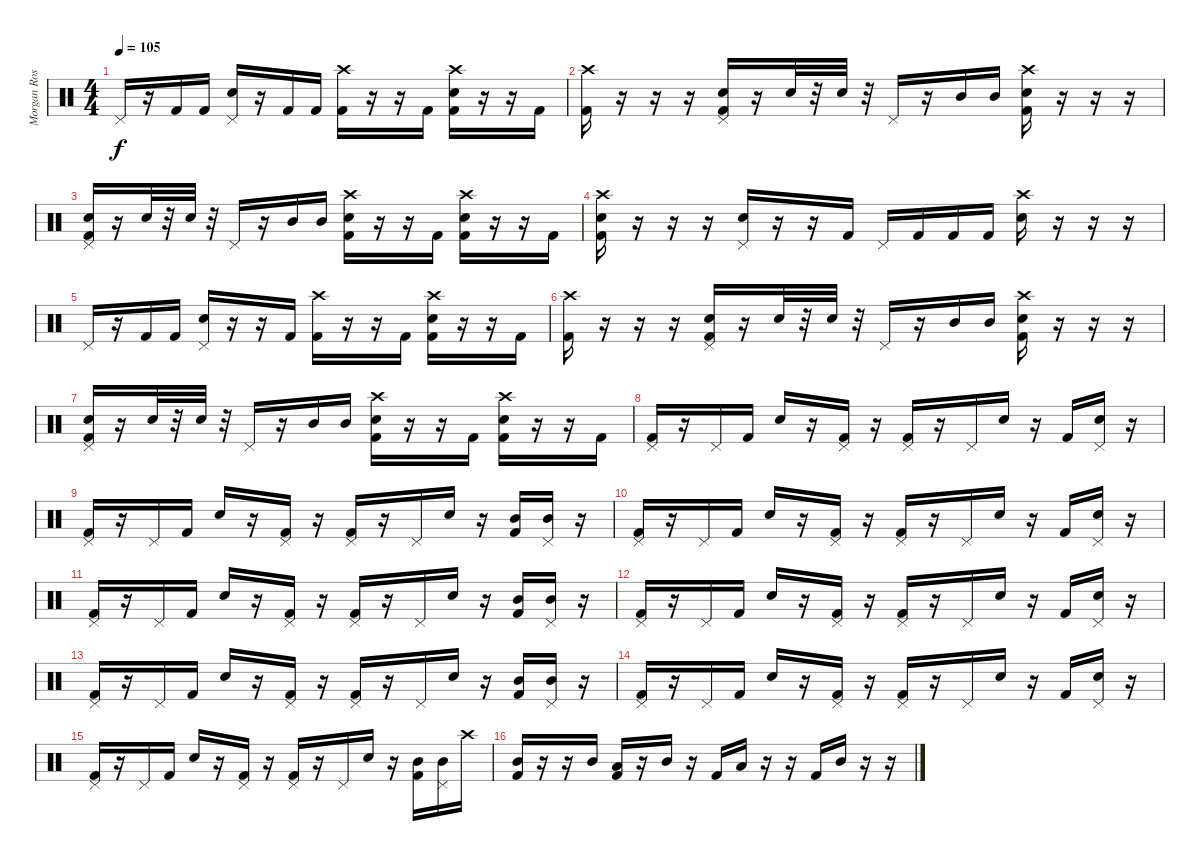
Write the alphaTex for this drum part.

\track ("Morgan Rose - Drums" "Morgan Ros") {instrument percussion}
\staff {score}
\articulation defaults
\ts (4 4)
\tempo 105
\clef neutral
\ks c "Pedal Hi-Hat (hit)".16{dy f}
r.16 "Kick (hit) 2".16 "Kick (hit) 2".16 ("Electric Snare (hit)" "Pedal Hi-Hat (hit)").16 r.16 "Kick (hit) 2".16 "Kick (hit) 2".16 ("Kick (hit) 2" "Crash high (hit)").16 r.16 r.16 "Kick (hit) 2".16 ("Kick (hit) 2" "Electric Snare (hit)" "Crash high (hit)").16 r.16 r.16 "Kick (hit) 2".16 |
("Kick (hit) 2" "Crash high (hit)").16 r.16 r.16 r.16 ("Kick (hit) 2" "Electric Snare (hit)" "Pedal Hi-Hat (hit)").16 r.16 "Electric Snare (hit)".32 r.32 "Electric Snare (hit)".32 r.32 "Pedal Hi-Hat (hit)".16 r.16 "Mid Tom (hit)".16 "Mid Tom (hit)".16 ("Kick (hit) 2" "Electric Snare (hit)" "Crash high (hit)").16 r.16 r.16 r.16 |
("Kick (hit) 2" "Electric Snare (hit)" "Pedal Hi-Hat (hit)").16 r.16 "Electric Snare (hit)".32 r.32 "Electric Snare (hit)".32 r.32 "Pedal Hi-Hat (hit)".16 r.16 "Mid Tom (hit)".16 "Mid Tom (hit)".16 ("Kick (hit) 2" "Electric Snare (hit)" "Crash high (hit)").16 r.16 r.16 "Kick (hit) 2".16 ("Kick (hit) 2" "Electric Snare (hit)" "Crash high (hit)").16 r.16 r.16 "Kick (hit) 2".16 |
("Kick (hit) 2" "Electric Snare (hit)" "Crash high (hit)").16 r.16 r.16 r.16 ("Electric Snare (hit)" "Pedal Hi-Hat (hit)").16 r.16 r.16 "Kick (hit) 2".16 "Pedal Hi-Hat (hit)".16 "Kick (hit) 2".16 "Kick (hit) 2".16 "Kick (hit) 2".16 ("Electric Snare (hit)" "Crash high (hit)").16 r.16 r.16 r.16 |
"Pedal Hi-Hat (hit)".16 r.16 "Kick (hit) 2".16 "Kick (hit) 2".16 ("Electric Snare (hit)" "Pedal Hi-Hat (hit)").16 r.16 r.16 "Kick (hit) 2".16 ("Kick (hit) 2" "Crash high (hit)").16 r.16 r.16 "Kick (hit) 2".16 ("Kick (hit) 2" "Electric Snare (hit)" "Crash high (hit)").16 r.16 r.16 "Kick (hit) 2".16 |
("Kick (hit) 2" "Crash high (hit)").16 r.16 r.16 r.16 ("Kick (hit) 2" "Electric Snare (hit)" "Pedal Hi-Hat (hit)").16 r.16 "Electric Snare (hit)".32 r.32 "Electric Snare (hit)".32 r.32 "Pedal Hi-Hat (hit)".16 r.16 "Mid Tom (hit)".16 "Mid Tom (hit)".16 ("Kick (hit) 2" "Electric Snare (hit)" "Crash high (hit)").16 r.16 r.16 r.16 |
("Kick (hit) 2" "Electric Snare (hit)" "Pedal Hi-Hat (hit)").16 r.16 "Electric Snare (hit)".32 r.32 "Electric Snare (hit)".32 r.32 "Pedal Hi-Hat (hit)".16 r.16 "Mid Tom (hit)".16 "Mid Tom (hit)".16 ("Kick (hit) 2" "Electric Snare (hit)" "Crash high (hit)").16 r.16 r.16 "Kick (hit) 2".16 ("Kick (hit) 2" "Electric Snare (hit)" "Crash high (hit)").16 r.16 r.16 "Kick (hit) 2".16 |
("Kick (hit) 2" "Pedal Hi-Hat (hit)").16 r.16 "Pedal Hi-Hat (hit)".16 "Kick (hit) 2".16 "Electric Snare (hit)".16 r.16 ("Kick (hit) 2" "Pedal Hi-Hat (hit)").16 r.16 ("Kick (hit) 2" "Pedal Hi-Hat (hit)").16 r.16 "Pedal Hi-Hat (hit)".16 "Electric Snare (hit)".16 r.16 "Kick (hit) 2".16 ("Electric Snare (hit)" "Pedal Hi-Hat (hit)").16 r.16 |
("Kick (hit) 2" "Pedal Hi-Hat (hit)").16 r.16 "Pedal Hi-Hat (hit)".16 "Kick (hit) 2".16 "Electric Snare (hit)".16 r.16 ("Kick (hit) 2" "Pedal Hi-Hat (hit)").16 r.16 ("Kick (hit) 2" "Pedal Hi-Hat (hit)").16 r.16 "Pedal Hi-Hat (hit)".16 "Electric Snare (hit)".16 r.16 ("Kick (hit) 2" "Mid Tom (hit)").16 ("Mid Tom (hit)" "Pedal Hi-Hat (hit)").16 r.16 |
("Kick (hit) 2" "Pedal Hi-Hat (hit)").16 r.16 "Pedal Hi-Hat (hit)".16 "Kick (hit) 2".16 "Electric Snare (hit)".16 r.16 ("Kick (hit) 2" "Pedal Hi-Hat (hit)").16 r.16 ("Kick (hit) 2" "Pedal Hi-Hat (hit)").16 r.16 "Pedal Hi-Hat (hit)".16 "Electric Snare (hit)".16 r.16 "Kick (hit) 2".16 ("Electric Snare (hit)" "Pedal Hi-Hat (hit)").16 r.16 |
("Kick (hit) 2" "Pedal Hi-Hat (hit)").16 r.16 "Pedal Hi-Hat (hit)".16 "Kick (hit) 2".16 "Electric Snare (hit)".16 r.16 ("Kick (hit) 2" "Pedal Hi-Hat (hit)").16 r.16 ("Kick (hit) 2" "Pedal Hi-Hat (hit)").16 r.16 "Pedal Hi-Hat (hit)".16 "Electric Snare (hit)".16 r.16 ("Kick (hit) 2" "Mid Tom (hit)").16 ("Mid Tom (hit)" "Pedal Hi-Hat (hit)").16 r.16 |
("Kick (hit) 2" "Pedal Hi-Hat (hit)").16 r.16 "Pedal Hi-Hat (hit)".16 "Kick (hit) 2".16 "Electric Snare (hit)".16 r.16 ("Kick (hit) 2" "Pedal Hi-Hat (hit)").16 r.16 ("Kick (hit) 2" "Pedal Hi-Hat (hit)").16 r.16 "Pedal Hi-Hat (hit)".16 "Electric Snare (hit)".16 r.16 "Kick (hit) 2".16 ("Electric Snare (hit)" "Pedal Hi-Hat (hit)").16 r.16 |
("Kick (hit) 2" "Pedal Hi-Hat (hit)").16 r.16 "Pedal Hi-Hat (hit)".16 "Kick (hit) 2".16 "Electric Snare (hit)".16 r.16 ("Kick (hit) 2" "Pedal Hi-Hat (hit)").16 r.16 ("Kick (hit) 2" "Pedal Hi-Hat (hit)").16 r.16 "Pedal Hi-Hat (hit)".16 "Electric Snare (hit)".16 r.16 ("Kick (hit) 2" "Mid Tom (hit)").16 ("Mid Tom (hit)" "Pedal Hi-Hat (hit)").16 r.16 |
("Kick (hit) 2" "Pedal Hi-Hat (hit)").16 r.16 "Pedal Hi-Hat (hit)".16 "Kick (hit) 2".16 "Electric Snare (hit)".16 r.16 ("Kick (hit) 2" "Pedal Hi-Hat (hit)").16 r.16 ("Kick (hit) 2" "Pedal Hi-Hat (hit)").16 r.16 "Pedal Hi-Hat (hit)".16 "Electric Snare (hit)".16 r.16 "Kick (hit) 2".16 ("Electric Snare (hit)" "Pedal Hi-Hat (hit)").16 r.16 |
("Kick (hit) 2" "Pedal Hi-Hat (hit)").16 r.16 "Pedal Hi-Hat (hit)".16 "Kick (hit) 2".16 "Electric Snare (hit)".16 r.16 ("Kick (hit) 2" "Pedal Hi-Hat (hit)").16 r.16 ("Kick (hit) 2" "Pedal Hi-Hat (hit)").16 r.16 "Pedal Hi-Hat (hit)".16 "Electric Snare (hit)".16 r.16 ("Kick (hit) 2" "Mid Tom (hit)").16 ("Mid Tom (hit)" "Pedal Hi-Hat (hit)").16 "Crash high (hit)".16 |
("Kick (hit) 2" "Mid Tom (hit)").16 r.16 r.16 "Mid Tom (hit)".16 ("Kick (hit) 2" "Low Tom (hit)").16 r.16 "Mid Tom (hit)".16 r.16 "Kick (hit) 2".16 "Low Tom (hit)".16 r.16 r.16 "Kick (hit) 2".16 "Mid Tom (hit)".16 r.16 r.16
